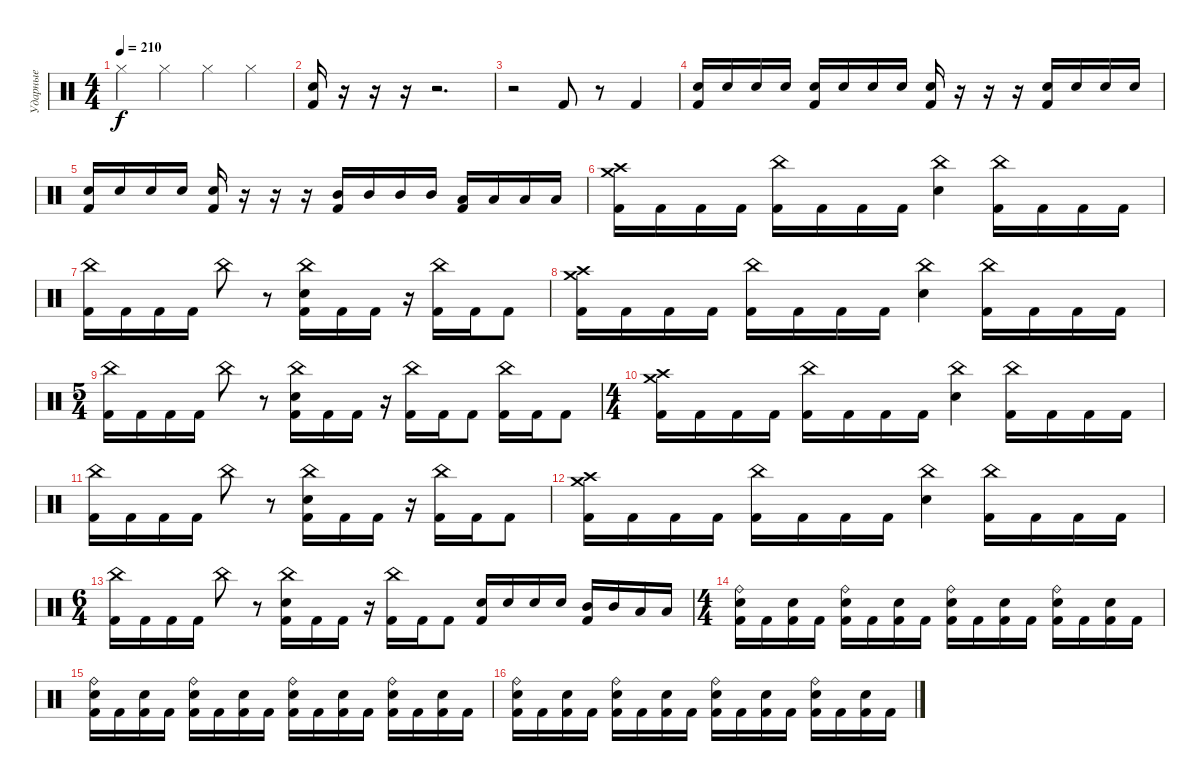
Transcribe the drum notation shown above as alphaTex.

\track ("Ударные" "Ударные") {instrument percussion}
\staff {score}
\articulation defaults
\ts (4 4)
\tempo 210
\clef neutral
\ks c "Hi-Hat (closed)".4{dy f} "Hi-Hat (closed)".4 "Hi-Hat (closed)".4 "Hi-Hat (closed)".4
|
("Electric Snare (hit)" "Kick (hit) 2").16 r.16 r.16 r.16 r.2{d} |
r.2 "Kick (hit) 2".8 r.8 "Kick (hit) 2".4 |
("Electric Snare (hit)" "Kick (hit) 2").16 "Electric Snare (hit)".16 "Electric Snare (hit)".16 "Electric Snare (hit)".16 ("Electric Snare (hit)" "Kick (hit) 2").16 "Electric Snare (hit)".16 "Electric Snare (hit)".16 "Electric Snare (hit)".16 ("Electric Snare (hit)" "Kick (hit) 2").16 r.16 r.16 r.16 ("Electric Snare (hit)" "Kick (hit) 2").16 "Electric Snare (hit)".16 "Electric Snare (hit)".16 "Electric Snare (hit)".16 |
("Electric Snare (hit)" "Kick (hit) 2").16 "Electric Snare (hit)".16 "Electric Snare (hit)".16 "Electric Snare (hit)".16 ("Electric Snare (hit)" "Kick (hit) 2").16 r.16 r.16 r.16 ("Mid Tom (hit)" "Kick (hit) 2").16 "Mid Tom (hit)".16 "Mid Tom (hit)".16 "Mid Tom (hit)".16 ("Low Tom (hit)" "Kick (hit) 2").16 "Low Tom (hit)".16 "Low Tom (hit)".16 "Low Tom (hit)".16 |
("Crash high (hit)" "Crash medium (hit)" "Kick (hit) 2").16 "Kick (hit) 2".16 "Kick (hit) 2".16 "Kick (hit) 2".16 ("China (hit)" "Kick (hit) 2").16 "Kick (hit) 2".16 "Kick (hit) 2".16 "Kick (hit) 2".16 ("China (hit)" "Electric Snare (hit)").4 ("China (hit)" "Kick (hit) 2").16 "Kick (hit) 2".16 "Kick (hit) 2".16 "Kick (hit) 2".16 |
("China (hit)" "Kick (hit) 2").16 "Kick (hit) 2".16 "Kick (hit) 2".16 "Kick (hit) 2".16 "China (hit)".8 r.8 ("China (hit)" "Electric Snare (hit)" "Kick (hit) 2").16 "Kick (hit) 2".16 "Kick (hit) 2".16 r.16 ("China (hit)" "Kick (hit) 2").16 "Kick (hit) 2".16 "Kick (hit) 2".8 |
("Crash high (hit)" "Crash medium (hit)" "Kick (hit) 2").16 "Kick (hit) 2".16 "Kick (hit) 2".16 "Kick (hit) 2".16 ("China (hit)" "Kick (hit) 2").16 "Kick (hit) 2".16 "Kick (hit) 2".16 "Kick (hit) 2".16 ("China (hit)" "Electric Snare (hit)").4 ("China (hit)" "Kick (hit) 2").16 "Kick (hit) 2".16 "Kick (hit) 2".16 "Kick (hit) 2".16 |
\ts (5 4)
("China (hit)" "Kick (hit) 2").16 "Kick (hit) 2".16 "Kick (hit) 2".16 "Kick (hit) 2".16 "China (hit)".8 r.8 ("China (hit)" "Electric Snare (hit)" "Kick (hit) 2").16 "Kick (hit) 2".16 "Kick (hit) 2".16 r.16 ("China (hit)" "Kick (hit) 2").16 "Kick (hit) 2".16 "Kick (hit) 2".8 ("China (hit)" "Kick (hit) 2").16 "Kick (hit) 2".16 "Kick (hit) 2".8 |
\ts (4 4)
("Crash high (hit)" "Crash medium (hit)" "Kick (hit) 2").16 "Kick (hit) 2".16 "Kick (hit) 2".16 "Kick (hit) 2".16 ("China (hit)" "Kick (hit) 2").16 "Kick (hit) 2".16 "Kick (hit) 2".16 "Kick (hit) 2".16 ("China (hit)" "Electric Snare (hit)").4 ("China (hit)" "Kick (hit) 2").16 "Kick (hit) 2".16 "Kick (hit) 2".16 "Kick (hit) 2".16 |
("China (hit)" "Kick (hit) 2").16 "Kick (hit) 2".16 "Kick (hit) 2".16 "Kick (hit) 2".16 "China (hit)".8 r.8 ("China (hit)" "Electric Snare (hit)" "Kick (hit) 2").16 "Kick (hit) 2".16 "Kick (hit) 2".16 r.16 ("China (hit)" "Kick (hit) 2").16 "Kick (hit) 2".16 "Kick (hit) 2".8 |
("Crash high (hit)" "Crash medium (hit)" "Kick (hit) 2").16 "Kick (hit) 2".16 "Kick (hit) 2".16 "Kick (hit) 2".16 ("China (hit)" "Kick (hit) 2").16 "Kick (hit) 2".16 "Kick (hit) 2".16 "Kick (hit) 2".16 ("China (hit)" "Electric Snare (hit)").4 ("China (hit)" "Kick (hit) 2").16 "Kick (hit) 2".16 "Kick (hit) 2".16 "Kick (hit) 2".16 |
\ts (6 4)
("China (hit)" "Kick (hit) 2").16 "Kick (hit) 2".16 "Kick (hit) 2".16 "Kick (hit) 2".16 "China (hit)".8 r.8 ("China (hit)" "Electric Snare (hit)" "Kick (hit) 2").16 "Kick (hit) 2".16 "Kick (hit) 2".16 r.16 ("China (hit)" "Kick (hit) 2").16 "Kick (hit) 2".16 "Kick (hit) 2".8 ("Kick (hit) 2" "Electric Snare (hit)").16 "Electric Snare (hit)".16 "Electric Snare (hit)".16 "Electric Snare (hit)".16 ("Kick (hit) 2" "Mid Tom (hit)").16 "Mid Tom (hit)".16 "Low Tom (hit)".16 "Low Tom (hit)".16 |
\ts (4 4)
("Ride (bell)" "Electric Snare (hit)" "Kick (hit) 2").16 "Kick (hit) 2".16 ("Electric Snare (hit)" "Kick (hit) 2").16 "Kick (hit) 2".16 ("Ride (bell)" "Electric Snare (hit)" "Kick (hit) 2").16 "Kick (hit) 2".16 ("Electric Snare (hit)" "Kick (hit) 2").16 "Kick (hit) 2".16 ("Ride (bell)" "Electric Snare (hit)" "Kick (hit) 2").16 "Kick (hit) 2".16 ("Electric Snare (hit)" "Kick (hit) 2").16 "Kick (hit) 2".16 ("Ride (bell)" "Electric Snare (hit)" "Kick (hit) 2").16 "Kick (hit) 2".16 ("Electric Snare (hit)" "Kick (hit) 2").16 "Kick (hit) 2".16 |
("Ride (bell)" "Electric Snare (hit)" "Kick (hit) 2").16 "Kick (hit) 2".16 ("Electric Snare (hit)" "Kick (hit) 2").16 "Kick (hit) 2".16 ("Ride (bell)" "Electric Snare (hit)" "Kick (hit) 2").16 "Kick (hit) 2".16 ("Electric Snare (hit)" "Kick (hit) 2").16 "Kick (hit) 2".16 ("Ride (bell)" "Electric Snare (hit)" "Kick (hit) 2").16 "Kick (hit) 2".16 ("Electric Snare (hit)" "Kick (hit) 2").16 "Kick (hit) 2".16 ("Ride (bell)" "Electric Snare (hit)" "Kick (hit) 2").16 "Kick (hit) 2".16 ("Electric Snare (hit)" "Kick (hit) 2").16 "Kick (hit) 2".16 |
("Ride (bell)" "Electric Snare (hit)" "Kick (hit) 2").16 "Kick (hit) 2".16 ("Electric Snare (hit)" "Kick (hit) 2").16 "Kick (hit) 2".16 ("Ride (bell)" "Electric Snare (hit)" "Kick (hit) 2").16 "Kick (hit) 2".16 ("Electric Snare (hit)" "Kick (hit) 2").16 "Kick (hit) 2".16 ("Ride (bell)" "Electric Snare (hit)" "Kick (hit) 2").16 "Kick (hit) 2".16 ("Electric Snare (hit)" "Kick (hit) 2").16 "Kick (hit) 2".16 ("Ride (bell)" "Electric Snare (hit)" "Kick (hit) 2").16 "Kick (hit) 2".16 ("Electric Snare (hit)" "Kick (hit) 2").16 "Kick (hit) 2".16
